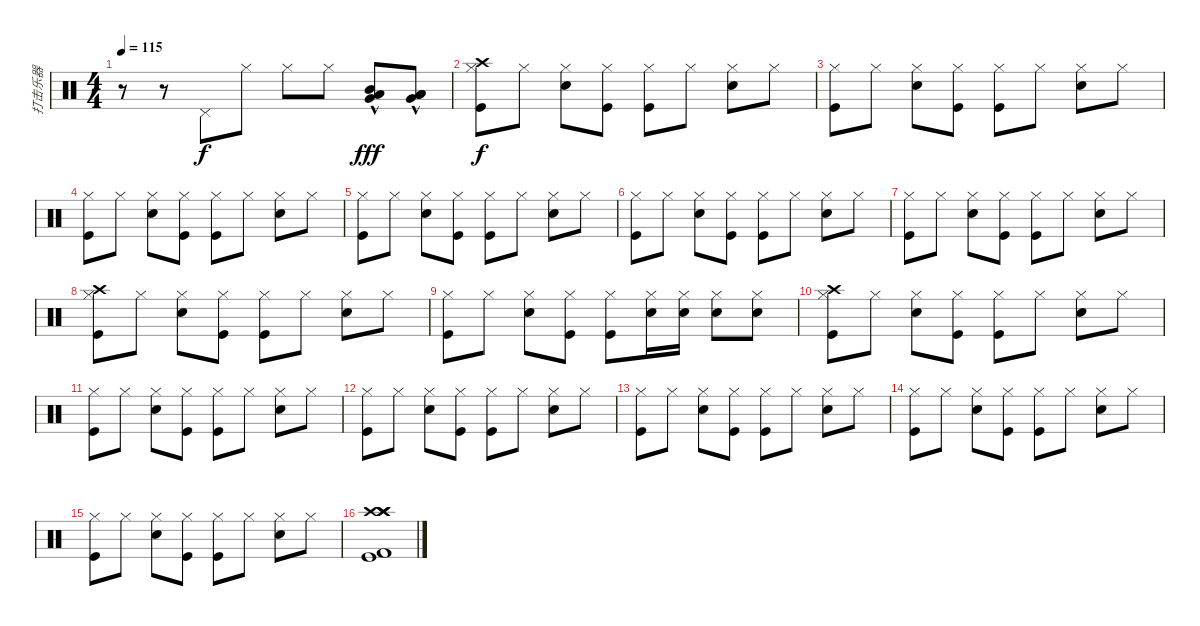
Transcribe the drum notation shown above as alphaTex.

\track ("打击乐器" "打击乐器") {instrument percussion}
\staff {score}
\articulation defaults
\ts (4 4)
\tempo 115
\clef neutral
\ks c
r.8{dy f} r.8 "Pedal Hi-Hat (hit)".8 "Hi-Hat (closed)".8 "Hi-Hat (closed)".8 "Hi-Hat (closed)".8 ("Very Low Tom (hit)"{hac} "Low Tom (hit)"{hac} "Mid Tom (hit)"{hac}).8{dy fff} ("Low Floor Tom (hit)"{hac} "Very Low Tom (hit)"{hac} "Low Floor Tom (hit)"{hac}).8 |
("Hi-Hat (closed)" "Kick (hit)" "Crash high (hit)").8{dy f} "Hi-Hat (closed)".8 ("Hi-Hat (closed)" "Snare (hit) 2").8 ("Hi-Hat (closed)" "Kick (hit)").8 ("Hi-Hat (closed)" "Kick (hit)").8 "Hi-Hat (closed)".8 ("Hi-Hat (closed)" "Snare (hit) 2").8 "Hi-Hat (closed)".8 |
("Hi-Hat (closed)" "Kick (hit)").8 "Hi-Hat (closed)".8 ("Hi-Hat (closed)" "Snare (hit) 2").8 ("Hi-Hat (closed)" "Kick (hit)").8 ("Hi-Hat (closed)" "Kick (hit)").8 "Hi-Hat (closed)".8 ("Hi-Hat (closed)" "Snare (hit) 2").8 "Hi-Hat (closed)".8 |
("Hi-Hat (closed)" "Kick (hit)").8 "Hi-Hat (closed)".8 ("Hi-Hat (closed)" "Snare (hit) 2").8 ("Hi-Hat (closed)" "Kick (hit)").8 ("Hi-Hat (closed)" "Kick (hit)").8 "Hi-Hat (closed)".8 ("Hi-Hat (closed)" "Snare (hit) 2").8 "Hi-Hat (closed)".8 |
("Hi-Hat (closed)" "Kick (hit)").8 "Hi-Hat (closed)".8 ("Hi-Hat (closed)" "Snare (hit) 2").8 ("Hi-Hat (closed)" "Kick (hit)").8 ("Hi-Hat (closed)" "Kick (hit)").8 "Hi-Hat (closed)".8 ("Hi-Hat (closed)" "Snare (hit) 2").8 "Hi-Hat (closed)".8 |
("Hi-Hat (closed)" "Kick (hit)").8 "Hi-Hat (closed)".8 ("Hi-Hat (closed)" "Snare (hit) 2").8 ("Hi-Hat (closed)" "Kick (hit)").8 ("Hi-Hat (closed)" "Kick (hit)").8 "Hi-Hat (closed)".8 ("Hi-Hat (closed)" "Snare (hit) 2").8 "Hi-Hat (closed)".8 |
("Hi-Hat (closed)" "Kick (hit)").8 "Hi-Hat (closed)".8 ("Hi-Hat (closed)" "Snare (hit) 2").8 ("Hi-Hat (closed)" "Kick (hit)").8 ("Hi-Hat (closed)" "Kick (hit)").8 "Hi-Hat (closed)".8 ("Hi-Hat (closed)" "Snare (hit) 2").8 "Hi-Hat (closed)".8 |
("Hi-Hat (closed)" "Kick (hit)" "Crash high (hit)").8 "Hi-Hat (closed)".8 ("Hi-Hat (closed)" "Snare (hit) 2").8 ("Hi-Hat (closed)" "Kick (hit)").8 ("Hi-Hat (closed)" "Kick (hit)").8 "Hi-Hat (closed)".8 ("Hi-Hat (closed)" "Snare (hit) 2").8 "Hi-Hat (closed)".8 |
("Hi-Hat (closed)" "Kick (hit)").8 "Hi-Hat (closed)".8 ("Hi-Hat (closed)" "Snare (hit) 2").8 ("Hi-Hat (closed)" "Kick (hit)").8 ("Hi-Hat (closed)" "Kick (hit)").8 ("Hi-Hat (closed)" "Snare (hit) 2").16 ("Hi-Hat (closed)" "Snare (hit) 2").16 ("Hi-Hat (closed)" "Snare (hit) 2").8 ("Hi-Hat (closed)" "Snare (hit) 2").8 |
("Hi-Hat (closed)" "Kick (hit)" "Crash high (hit)").8 "Hi-Hat (closed)".8 ("Hi-Hat (closed)" "Snare (hit) 2").8 ("Hi-Hat (closed)" "Kick (hit)").8 ("Hi-Hat (closed)" "Kick (hit)").8 "Hi-Hat (closed)".8 ("Hi-Hat (closed)" "Snare (hit) 2").8 "Hi-Hat (closed)".8 |
("Hi-Hat (closed)" "Kick (hit)").8 "Hi-Hat (closed)".8 ("Hi-Hat (closed)" "Snare (hit) 2").8 ("Hi-Hat (closed)" "Kick (hit)").8 ("Hi-Hat (closed)" "Kick (hit)").8 "Hi-Hat (closed)".8 ("Hi-Hat (closed)" "Snare (hit) 2").8 "Hi-Hat (closed)".8 |
("Hi-Hat (closed)" "Kick (hit)").8 "Hi-Hat (closed)".8 ("Hi-Hat (closed)" "Snare (hit) 2").8 ("Hi-Hat (closed)" "Kick (hit)").8 ("Hi-Hat (closed)" "Kick (hit)").8 "Hi-Hat (closed)".8 ("Hi-Hat (closed)" "Snare (hit) 2").8 "Hi-Hat (closed)".8 |
("Hi-Hat (closed)" "Kick (hit)").8 "Hi-Hat (closed)".8 ("Hi-Hat (closed)" "Snare (hit) 2").8 ("Hi-Hat (closed)" "Kick (hit)").8 ("Hi-Hat (closed)" "Kick (hit)").8 "Hi-Hat (closed)".8 ("Hi-Hat (closed)" "Snare (hit) 2").8 "Hi-Hat (closed)".8 |
("Hi-Hat (closed)" "Kick (hit)").8 "Hi-Hat (closed)".8 ("Hi-Hat (closed)" "Snare (hit) 2").8 ("Hi-Hat (closed)" "Kick (hit)").8 ("Hi-Hat (closed)" "Kick (hit)").8 "Hi-Hat (closed)".8 ("Hi-Hat (closed)" "Snare (hit) 2").8 "Hi-Hat (closed)".8 |
("Hi-Hat (closed)" "Kick (hit)").8 "Hi-Hat (closed)".8 ("Hi-Hat (closed)" "Snare (hit) 2").8 ("Hi-Hat (closed)" "Kick (hit)").8 ("Hi-Hat (closed)" "Kick (hit)").8 "Hi-Hat (closed)".8 ("Hi-Hat (closed)" "Snare (hit) 2").8 "Hi-Hat (closed)".8 |
("Crash high (hit)" "Kick (hit) 2" "Kick (hit)" "Crash high (hit)" "Crash high (hit)" "Crash high (hit)").1
